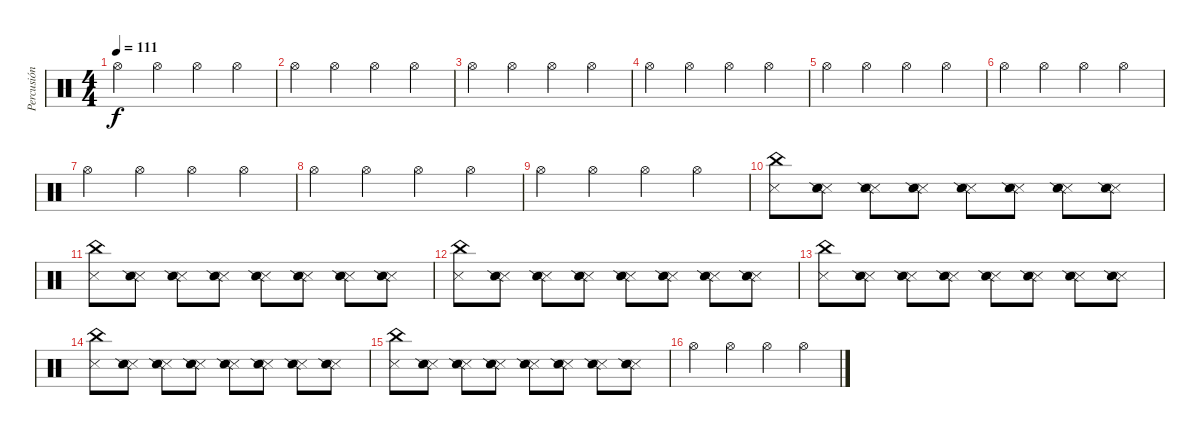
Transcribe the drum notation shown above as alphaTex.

\track ("Percusión" "Percusión") {instrument percussion}
\staff {score}
\articulation defaults
\ts (4 4)
\tempo 111
\clef neutral
\ks c "Hi-Hat (open)".4{dy f} "Hi-Hat (open)".4 "Hi-Hat (open)".4 "Hi-Hat (open)".4
|
"Hi-Hat (open)".4 "Hi-Hat (open)".4 "Hi-Hat (open)".4 "Hi-Hat (open)".4 |
"Hi-Hat (open)".4 "Hi-Hat (open)".4 "Hi-Hat (open)".4 "Hi-Hat (open)".4 |
"Hi-Hat (open)".4 "Hi-Hat (open)".4 "Hi-Hat (open)".4 "Hi-Hat (open)".4 |
"Hi-Hat (open)".4 "Hi-Hat (open)".4 "Hi-Hat (open)".4 "Hi-Hat (open)".4 |
"Hi-Hat (open)".4 "Hi-Hat (open)".4 "Hi-Hat (open)".4 "Hi-Hat (open)".4 |
"Hi-Hat (open)".4 "Hi-Hat (open)".4 "Hi-Hat (open)".4 "Hi-Hat (open)".4 |
"Hi-Hat (open)".4 "Hi-Hat (open)".4 "Hi-Hat (open)".4 "Hi-Hat (open)".4 |
"Hi-Hat (open)".4 "Hi-Hat (open)".4 "Hi-Hat (open)".4 "Hi-Hat (open)".4 |
("Snare (side stick) 3" "China (hit)").8 ("Snare (side stick) 3" "Snare (side stick) 2").8 ("Snare (side stick) 3" "Snare (side stick) 2").8 ("Snare (side stick) 3" "Snare (side stick) 2").8 ("Snare (side stick) 3" "Snare (side stick) 2").8 ("Snare (side stick) 3" "Snare (side stick) 2").8 ("Snare (side stick) 3" "Snare (side stick) 2").8 ("Snare (side stick) 3" "Snare (side stick) 2").8 |
("Snare (side stick) 3" "China (hit)").8 ("Snare (side stick) 3" "Snare (side stick) 2").8 ("Snare (side stick) 3" "Snare (side stick) 2").8 ("Snare (side stick) 3" "Snare (side stick) 2").8 ("Snare (side stick) 3" "Snare (side stick) 2").8 ("Snare (side stick) 3" "Snare (side stick) 2").8 ("Snare (side stick) 3" "Snare (side stick) 2").8 ("Snare (side stick) 3" "Snare (side stick) 2").8 |
("Snare (side stick) 3" "China (hit)").8 ("Snare (side stick) 3" "Snare (side stick) 2").8 ("Snare (side stick) 3" "Snare (side stick) 2").8 ("Snare (side stick) 3" "Snare (side stick) 2").8 ("Snare (side stick) 3" "Snare (side stick) 2").8 ("Snare (side stick) 3" "Snare (side stick) 2").8 ("Snare (side stick) 3" "Snare (side stick) 2").8 ("Snare (side stick) 3" "Snare (side stick) 2").8 |
("Snare (side stick) 3" "China (hit)").8 ("Snare (side stick) 3" "Snare (side stick) 2").8 ("Snare (side stick) 3" "Snare (side stick) 2").8 ("Snare (side stick) 3" "Snare (side stick) 2").8 ("Snare (side stick) 3" "Snare (side stick) 2").8 ("Snare (side stick) 3" "Snare (side stick) 2").8 ("Snare (side stick) 3" "Snare (side stick) 2").8 ("Snare (side stick) 3" "Snare (side stick) 2").8 |
("Snare (side stick) 3" "China (hit)").8 ("Snare (side stick) 3" "Snare (side stick) 2").8 ("Snare (side stick) 3" "Snare (side stick) 2").8 ("Snare (side stick) 3" "Snare (side stick) 2").8 ("Snare (side stick) 3" "Snare (side stick) 2").8 ("Snare (side stick) 3" "Snare (side stick) 2").8 ("Snare (side stick) 3" "Snare (side stick) 2").8 ("Snare (side stick) 3" "Snare (side stick) 2").8 |
("Snare (side stick) 3" "China (hit)").8 ("Snare (side stick) 3" "Snare (side stick) 2").8 ("Snare (side stick) 3" "Snare (side stick) 2").8 ("Snare (side stick) 3" "Snare (side stick) 2").8 ("Snare (side stick) 3" "Snare (side stick) 2").8 ("Snare (side stick) 3" "Snare (side stick) 2").8 ("Snare (side stick) 3" "Snare (side stick) 2").8 ("Snare (side stick) 3" "Snare (side stick) 2").8 |
"Hi-Hat (open)".4 "Hi-Hat (open)".4 "Hi-Hat (open)".4 "Hi-Hat (open)".4
